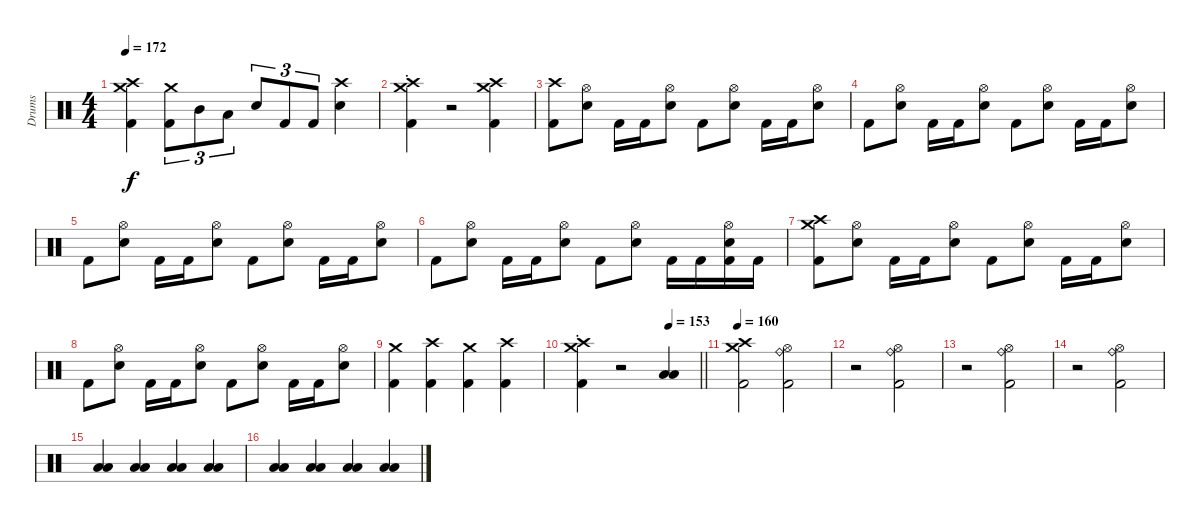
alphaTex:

\track ("Drums" "Drums") {instrument percussion}
\staff {score}
\articulation defaults
\ts (4 4)
\tempo 172
\clef neutral
\ks c
("Crash medium (hit)" "Crash high (hit)" "Kick (hit) 2").4{dy f} ("Crash medium (hit)" "Kick (hit) 2").8{tu (3 2)} "Mid Tom (hit)".8{tu (3 2)} "Low Tom (hit)".8{tu (3 2)} "Electric Snare (hit)".8{tu (3 2)} "Kick (hit) 2".8{tu (3 2)} "Kick (hit) 2".8{tu (3 2)} ("Crash high (hit)" "Electric Snare (hit)").4 |
("Crash medium (hit)"{st} "Crash high (hit)" "Kick (hit) 2").4 r.2{volume 0} ("Crash medium (hit)" "Crash high (hit)" "Kick (hit) 2").4{volume 14} |
("Crash high (hit)" "Kick (hit) 2").8 ("Hi-Hat (open)" "Electric Snare (hit)").8 "Kick (hit) 2".16 "Kick (hit) 2".16 ("Hi-Hat (open)" "Electric Snare (hit)").8 "Kick (hit) 2".8 ("Hi-Hat (open)" "Electric Snare (hit)").8 "Kick (hit) 2".16 "Kick (hit) 2".16 ("Hi-Hat (open)" "Electric Snare (hit)").8 |
"Kick (hit) 2".8 ("Hi-Hat (open)" "Electric Snare (hit)").8 "Kick (hit) 2".16 "Kick (hit) 2".16 ("Hi-Hat (open)" "Electric Snare (hit)").8 "Kick (hit) 2".8 ("Hi-Hat (open)" "Electric Snare (hit)").8 "Kick (hit) 2".16 "Kick (hit) 2".16 ("Hi-Hat (open)" "Electric Snare (hit)").8 |
"Kick (hit) 2".8 ("Hi-Hat (open)" "Electric Snare (hit)").8 "Kick (hit) 2".16 "Kick (hit) 2".16 ("Hi-Hat (open)" "Electric Snare (hit)").8 "Kick (hit) 2".8 ("Hi-Hat (open)" "Electric Snare (hit)").8 "Kick (hit) 2".16 "Kick (hit) 2".16 ("Hi-Hat (open)" "Electric Snare (hit)").8 |
"Kick (hit) 2".8 ("Hi-Hat (open)" "Electric Snare (hit)").8 "Kick (hit) 2".16 "Kick (hit) 2".16 ("Hi-Hat (open)" "Electric Snare (hit)").8 "Kick (hit) 2".8 ("Hi-Hat (open)" "Electric Snare (hit)").8 "Kick (hit) 2".16 "Kick (hit) 2".16 ("Hi-Hat (open)" "Electric Snare (hit)" "Kick (hit) 2").16 "Kick (hit) 2".16 |
("Crash medium (hit)" "Crash high (hit)" "Kick (hit) 2").8 ("Hi-Hat (open)" "Electric Snare (hit)").8 "Kick (hit) 2".16 "Kick (hit) 2".16 ("Hi-Hat (open)" "Electric Snare (hit)").8 "Kick (hit) 2".8 ("Hi-Hat (open)" "Electric Snare (hit)").8 "Kick (hit) 2".16 "Kick (hit) 2".16 ("Hi-Hat (open)" "Electric Snare (hit)").8 |
"Kick (hit) 2".8 ("Hi-Hat (open)" "Electric Snare (hit)").8 "Kick (hit) 2".16 "Kick (hit) 2".16 ("Hi-Hat (open)" "Electric Snare (hit)").8 "Kick (hit) 2".8 ("Hi-Hat (open)" "Electric Snare (hit)").8 "Kick (hit) 2".16 "Kick (hit) 2".16 ("Hi-Hat (open)" "Electric Snare (hit)").8 |
("Crash medium (hit)" "Kick (hit) 2").4 ("Crash high (hit)" "Kick (hit) 2").4 ("Crash medium (hit)" "Kick (hit) 2").4 ("Crash high (hit)" "Kick (hit) 2").4 |
\tempo (153 0.75)
\barLineRight lightlight
("Crash medium (hit)"{st} "Crash high (hit)" "Kick (hit) 2").4 r.2{volume 0} ("Low Tom (hit)" "Low Tom (hit)").4{bu 120 volume 14} |
\section ("" "")
\tempo 160
("Crash medium (hit)" "Crash high (hit)" "Kick (hit) 2").2 ("Ride (bell)" "Hi-Hat (open)" "Kick (hit) 2").2 |
r.2 ("Ride (bell)" "Hi-Hat (open)" "Kick (hit) 2").2 |
r.2 ("Ride (bell)" "Hi-Hat (open)" "Kick (hit) 2").2 |
r.2 ("Ride (bell)" "Hi-Hat (open)" "Kick (hit) 2").2 |
("Low Tom (hit)" "Low Tom (hit)").4{bu 120} ("Low Floor Tom (hit)" "Low Floor Tom (hit)").4{bu 120} ("Low Tom (hit)" "Low Tom (hit)").4{bu 120} ("Low Floor Tom (hit)" "Low Floor Tom (hit)").4{bu 120} |
("Low Tom (hit)" "Low Tom (hit)").4{bu 120} ("Low Floor Tom (hit)" "Low Floor Tom (hit)").4{bu 120} ("Low Tom (hit)" "Low Tom (hit)").4{bu 120} ("Low Floor Tom (hit)" "Low Floor Tom (hit)").4{bu 120}
